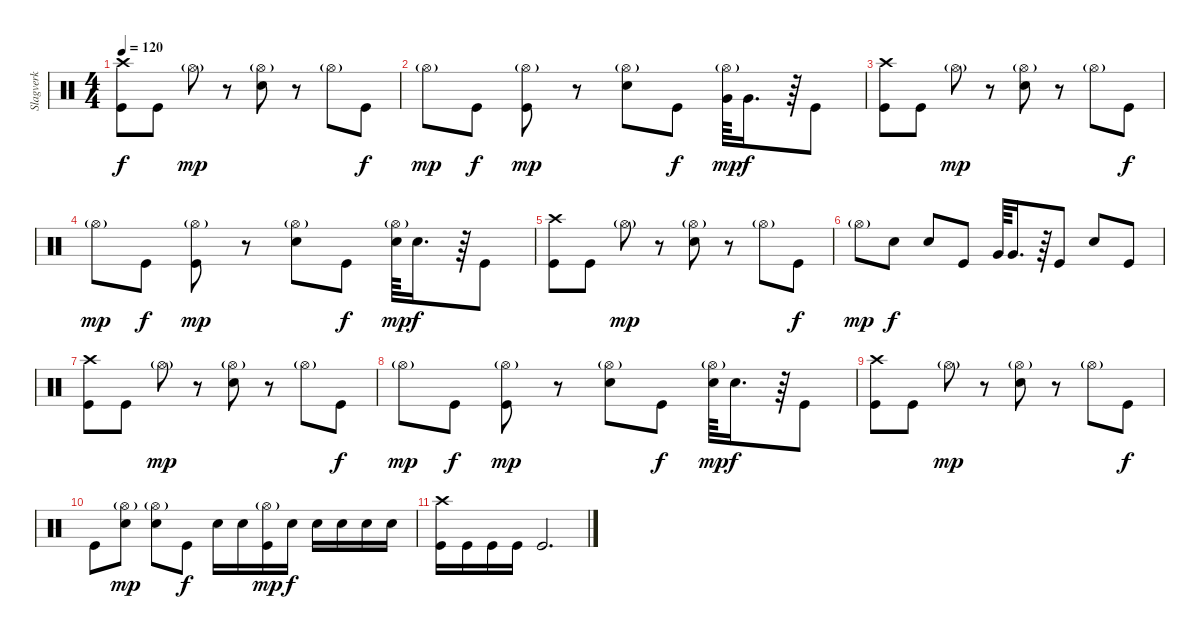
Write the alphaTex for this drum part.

\track ("Slagverk" "Slagverk") {instrument percussion}
\staff {score}
\articulation defaults
\ts (4 4)
\tempo 120
\clef neutral
\ks c
("Crash high (hit)" "Kick (hit)").8{dy f} "Kick (hit)".8 "Hi-Hat (open)"{g}.8{dy mp} r.8 ("Hi-Hat (open)"{g} "Electric Snare (hit)").8 r.8 "Hi-Hat (open)"{g}.8 "Kick (hit)".8{dy f} |
"Hi-Hat (open)"{g}.8{dy mp} "Kick (hit)".8{dy f} ("Hi-Hat (open)"{g} "Kick (hit)").8{dy mp} r.8 ("Hi-Hat (open)"{g} "Electric Snare (hit)").8 "Kick (hit)".8{dy f} ("Hi-Hat (open)"{g} "Very Low Tom (hit)").64{dy mp} "Very Low Tom (hit)".16{d dy f} r.64 "Kick (hit)".8 |
("Crash high (hit)" "Kick (hit)").8 "Kick (hit)".8 "Hi-Hat (open)"{g}.8{dy mp} r.8 ("Hi-Hat (open)"{g} "Electric Snare (hit)").8 r.8 "Hi-Hat (open)"{g}.8 "Kick (hit)".8{dy f} |
"Hi-Hat (open)"{g}.8{dy mp} "Kick (hit)".8{dy f} ("Hi-Hat (open)"{g} "Kick (hit)").8{dy mp} r.8 ("Hi-Hat (open)"{g} "Electric Snare (hit)").8 "Kick (hit)".8{dy f} ("Hi-Hat (open)"{g} "Electric Snare (hit)").64{dy mp} "Electric Snare (hit)".16{d dy f} r.64 "Kick (hit)".8 |
("Crash high (hit)" "Kick (hit)").8 "Kick (hit)".8 "Hi-Hat (open)"{g}.8{dy mp} r.8 ("Hi-Hat (open)"{g} "Electric Snare (hit)").8 r.8 "Hi-Hat (open)"{g}.8 "Kick (hit)".8{dy f} |
"Hi-Hat (open)"{g}.8{dy mp} "Electric Snare (hit)".8{dy f} "Electric Snare (hit)".8 "Kick (hit)".8 "Very Low Tom (hit)".64 "Very Low Tom (hit)".16{d} r.64 "Kick (hit)".8 "Electric Snare (hit)".8 "Kick (hit)".8 |
("Crash high (hit)" "Kick (hit)").8 "Kick (hit)".8 "Hi-Hat (open)"{g}.8{dy mp} r.8 ("Hi-Hat (open)"{g} "Electric Snare (hit)").8 r.8 "Hi-Hat (open)"{g}.8 "Kick (hit)".8{dy f} |
"Hi-Hat (open)"{g}.8{dy mp} "Kick (hit)".8{dy f} ("Hi-Hat (open)"{g} "Kick (hit)").8{dy mp} r.8 ("Hi-Hat (open)"{g} "Electric Snare (hit)").8 "Kick (hit)".8{dy f} ("Hi-Hat (open)"{g} "Electric Snare (hit)").64{dy mp} "Electric Snare (hit)".16{d dy f} r.64 "Kick (hit)".8 |
("Crash high (hit)" "Kick (hit)").8 "Kick (hit)".8 "Hi-Hat (open)"{g}.8{dy mp} r.8 ("Hi-Hat (open)"{g} "Electric Snare (hit)").8 r.8 "Hi-Hat (open)"{g}.8 "Kick (hit)".8{dy f} |
"Kick (hit)".8 ("Hi-Hat (open)"{g} "Electric Snare (hit)").8{dy mp} ("Hi-Hat (open)"{g} "Electric Snare (hit)").8 "Kick (hit)".8{dy f} "Electric Snare (hit)".16 "Electric Snare (hit)".16 ("Hi-Hat (open)"{g} "Kick (hit)").16{dy mp} "Snare (hit)".16{dy f} "Electric Snare (hit)".16 "Electric Snare (hit)".16 "Electric Snare (hit)".16 "Electric Snare (hit)".16 |
("Crash high (hit)" "Kick (hit)").16 "Kick (hit)".16 "Kick (hit)".16 "Kick (hit)".16 "Kick (hit)".2{d}
